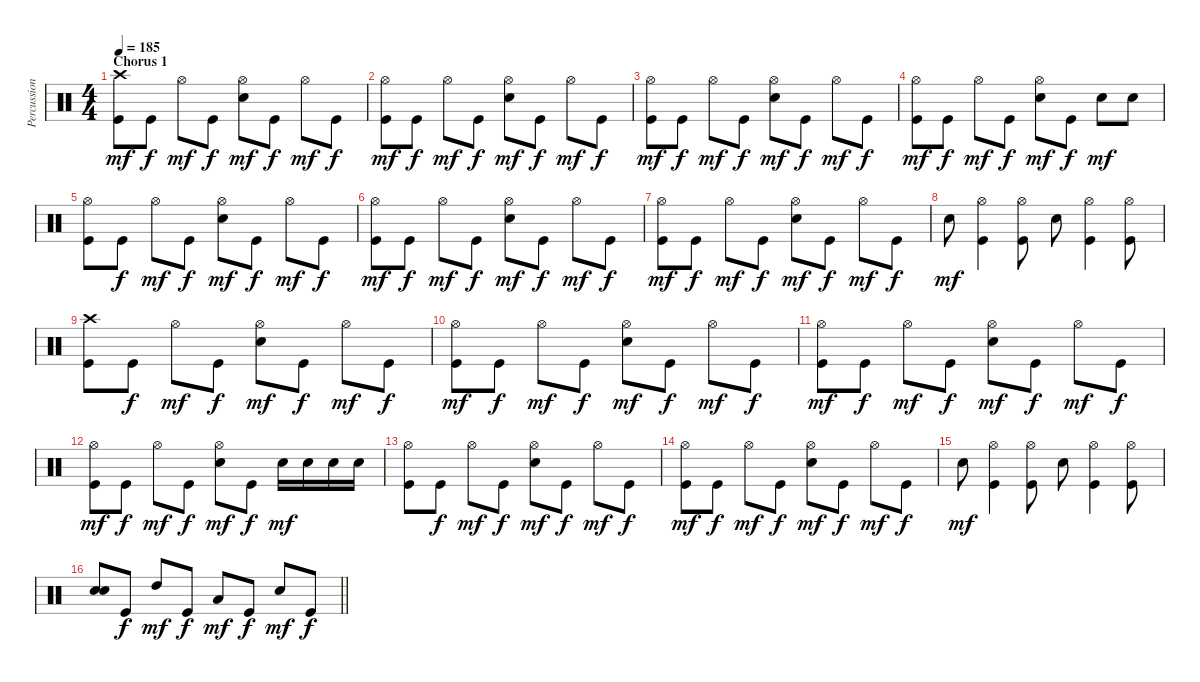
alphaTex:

\track ("Percussion" "Percussion") {instrument percussion}
\staff {score}
\articulation defaults
\ts (4 4)
\section ("" "Chorus 1")
\tempo 185
\clef neutral
\ks c
("Crash high (hit)" "Kick (hit)").8{dy mf} "Kick (hit)".8{dy f} "Hi-Hat (open)".8{dy mf} "Kick (hit)".8{dy f} ("Snare (hit) 2" "Hi-Hat (open)").8{dy mf} "Kick (hit)".8{dy f} "Hi-Hat (open)".8{dy mf} "Kick (hit)".8{dy f} |
("Kick (hit)" "Hi-Hat (open)").8{dy mf} "Kick (hit)".8{dy f} "Hi-Hat (open)".8{dy mf} "Kick (hit)".8{dy f} ("Snare (hit) 2" "Hi-Hat (open)").8{dy mf} "Kick (hit)".8{dy f} "Hi-Hat (open)".8{dy mf} "Kick (hit)".8{dy f} |
("Hi-Hat (open)" "Kick (hit)").8{dy mf} "Kick (hit)".8{dy f} "Hi-Hat (open)".8{dy mf} "Kick (hit)".8{dy f} ("Snare (hit) 2" "Hi-Hat (open)").8{dy mf} "Kick (hit)".8{dy f} "Hi-Hat (open)".8{dy mf} "Kick (hit)".8{dy f} |
("Hi-Hat (open)" "Kick (hit)").8{dy mf} "Kick (hit)".8{dy f} "Hi-Hat (open)".8{dy mf} "Kick (hit)".8{dy f} ("Snare (hit) 2" "Hi-Hat (open)").8{dy mf} "Kick (hit)".8{dy f} "Snare (hit) 2".8{dy mf} "Snare (hit) 2".8 |
("Hi-Hat (open)" "Kick (hit)").8 "Kick (hit)".8{dy f} "Hi-Hat (open)".8{dy mf} "Kick (hit)".8{dy f} ("Snare (hit) 2" "Hi-Hat (open)").8{dy mf} "Kick (hit)".8{dy f} "Hi-Hat (open)".8{dy mf} "Kick (hit)".8{dy f} |
("Hi-Hat (open)" "Kick (hit)").8{dy mf} "Kick (hit)".8{dy f} "Hi-Hat (open)".8{dy mf} "Kick (hit)".8{dy f} ("Snare (hit) 2" "Hi-Hat (open)").8{dy mf} "Kick (hit)".8{dy f} "Hi-Hat (open)".8{dy mf} "Kick (hit)".8{dy f} |
("Hi-Hat (open)" "Kick (hit)").8{dy mf} "Kick (hit)".8{dy f} "Hi-Hat (open)".8{dy mf} "Kick (hit)".8{dy f} ("Snare (hit) 2" "Hi-Hat (open)").8{dy mf} "Kick (hit)".8{dy f} "Hi-Hat (open)".8{dy mf} "Kick (hit)".8{dy f} |
"Snare (hit) 2".8{dy mf} ("Hi-Hat (open)" "Kick (hit)").4 ("Hi-Hat (open)" "Kick (hit)").8 "Snare (hit) 2".8 ("Kick (hit)" "Hi-Hat (open)").4 ("Kick (hit)" "Hi-Hat (open)").8 |
("Crash high (hit)" "Kick (hit)").8 "Kick (hit)".8{dy f} "Hi-Hat (open)".8{dy mf} "Kick (hit)".8{dy f} ("Snare (hit) 2" "Hi-Hat (open)").8{dy mf} "Kick (hit)".8{dy f} "Hi-Hat (open)".8{dy mf} "Kick (hit)".8{dy f} |
("Kick (hit)" "Hi-Hat (open)").8{dy mf} "Kick (hit)".8{dy f} "Hi-Hat (open)".8{dy mf} "Kick (hit)".8{dy f} ("Snare (hit) 2" "Hi-Hat (open)").8{dy mf} "Kick (hit)".8{dy f} "Hi-Hat (open)".8{dy mf} "Kick (hit)".8{dy f} |
("Hi-Hat (open)" "Kick (hit)").8{dy mf} "Kick (hit)".8{dy f} "Hi-Hat (open)".8{dy mf} "Kick (hit)".8{dy f} ("Snare (hit) 2" "Hi-Hat (open)").8{dy mf} "Kick (hit)".8{dy f} "Hi-Hat (open)".8{dy mf} "Kick (hit)".8{dy f} |
("Hi-Hat (open)" "Kick (hit)").8{dy mf} "Kick (hit)".8{dy f} "Hi-Hat (open)".8{dy mf} "Kick (hit)".8{dy f} ("Snare (hit) 2" "Hi-Hat (open)").8{dy mf} "Kick (hit)".8{dy f} "Snare (hit) 2".16{dy mf} "Snare (hit) 2".16 "Snare (hit) 2".16 "Snare (hit) 2".16 |
("Kick (hit)" "Hi-Hat (open)").8 "Kick (hit)".8{dy f} "Hi-Hat (open)".8{dy mf} "Kick (hit)".8{dy f} ("Snare (hit) 2" "Hi-Hat (open)").8{dy mf} "Kick (hit)".8{dy f} "Hi-Hat (open)".8{dy mf} "Kick (hit)".8{dy f} |
("Kick (hit)" "Hi-Hat (open)").8{dy mf} "Kick (hit)".8{dy f} "Hi-Hat (open)".8{dy mf} "Kick (hit)".8{dy f} ("Snare (hit) 2" "Hi-Hat (open)").8{dy mf} "Kick (hit)".8{dy f} "Hi-Hat (open)".8{dy mf} "Kick (hit)".8{dy f} |
"Snare (hit) 2".8{dy mf} ("Hi-Hat (open)" "Kick (hit)").4 ("Hi-Hat (open)" "Kick (hit)").8 "Snare (hit) 2".8 ("Kick (hit)" "Hi-Hat (open)").4 ("Kick (hit)" "Hi-Hat (open)").8 |
\barLineRight lightlight
("Snare (hit) 2" "Snare (hit) 2").8 "Kick (hit)".8{dy f} "High Tom (hit)".8{dy mf} "Kick (hit)".8{dy f} "Low Tom (hit)".8{dy mf} "Kick (hit)".8{dy f} "Snare (hit) 2".8{dy mf} "Kick (hit)".8{dy f}
